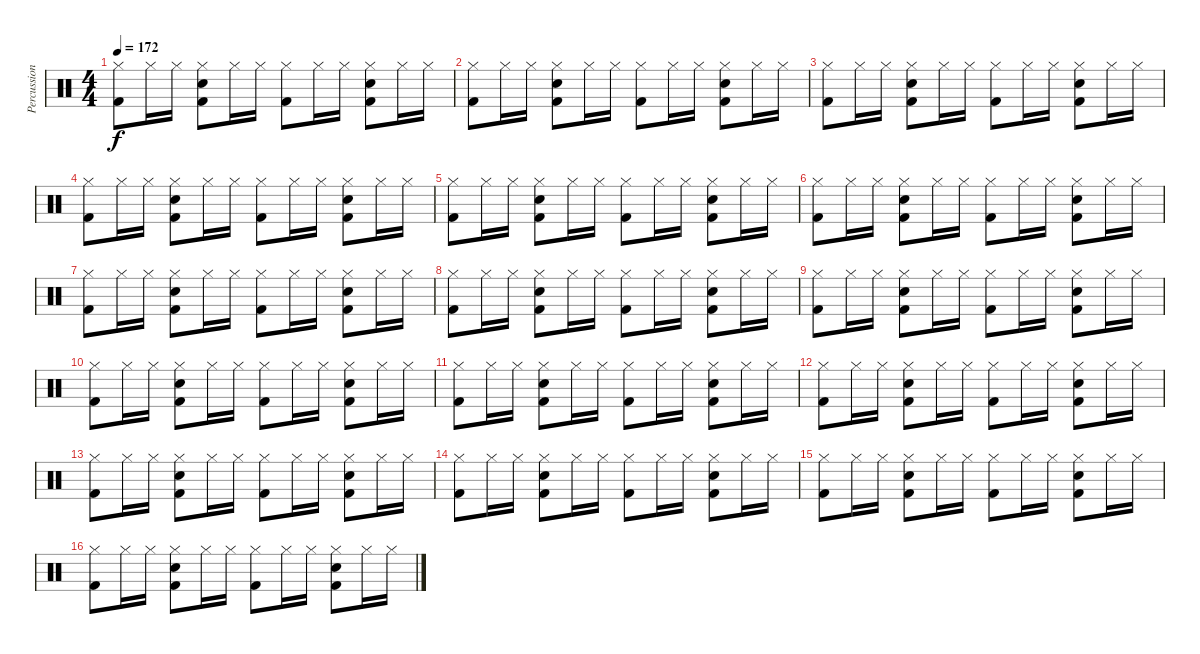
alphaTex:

\track ("Percussion" "Percussion") {instrument percussion}
\staff {score}
\articulation defaults
\ts (4 4)
\tempo 172
\clef neutral
\ks c
("Hi-Hat (closed)" "Kick (hit) 2").8{dy f} "Hi-Hat (closed)".16 "Hi-Hat (closed)".16 ("Hi-Hat (closed)" "Snare (hit) 2" "Kick (hit) 2").8 "Hi-Hat (closed)".16 "Hi-Hat (closed)".16 ("Hi-Hat (closed)" "Kick (hit) 2").8 "Hi-Hat (closed)".16 "Hi-Hat (closed)".16 ("Hi-Hat (closed)" "Snare (hit) 2" "Kick (hit) 2").8 "Hi-Hat (closed)".16 "Hi-Hat (closed)".16 |
("Hi-Hat (closed)" "Kick (hit) 2").8 "Hi-Hat (closed)".16 "Hi-Hat (closed)".16 ("Hi-Hat (closed)" "Snare (hit) 2" "Kick (hit) 2").8 "Hi-Hat (closed)".16 "Hi-Hat (closed)".16 ("Hi-Hat (closed)" "Kick (hit) 2").8 "Hi-Hat (closed)".16 "Hi-Hat (closed)".16 ("Hi-Hat (closed)" "Snare (hit) 2" "Kick (hit) 2").8 "Hi-Hat (closed)".16 "Hi-Hat (closed)".16 |
("Hi-Hat (closed)" "Kick (hit) 2").8 "Hi-Hat (closed)".16 "Hi-Hat (closed)".16 ("Hi-Hat (closed)" "Snare (hit) 2" "Kick (hit) 2").8 "Hi-Hat (closed)".16 "Hi-Hat (closed)".16 ("Hi-Hat (closed)" "Kick (hit) 2").8 "Hi-Hat (closed)".16 "Hi-Hat (closed)".16 ("Hi-Hat (closed)" "Snare (hit) 2" "Kick (hit) 2").8 "Hi-Hat (closed)".16 "Hi-Hat (closed)".16 |
("Hi-Hat (closed)" "Kick (hit) 2").8 "Hi-Hat (closed)".16 "Hi-Hat (closed)".16 ("Hi-Hat (closed)" "Snare (hit) 2" "Kick (hit) 2").8 "Hi-Hat (closed)".16 "Hi-Hat (closed)".16 ("Hi-Hat (closed)" "Kick (hit) 2").8 "Hi-Hat (closed)".16 "Hi-Hat (closed)".16 ("Hi-Hat (closed)" "Snare (hit) 2" "Kick (hit) 2").8 "Hi-Hat (closed)".16 "Hi-Hat (closed)".16 |
("Hi-Hat (closed)" "Kick (hit) 2").8 "Hi-Hat (closed)".16 "Hi-Hat (closed)".16 ("Hi-Hat (closed)" "Snare (hit) 2" "Kick (hit) 2").8 "Hi-Hat (closed)".16 "Hi-Hat (closed)".16 ("Hi-Hat (closed)" "Kick (hit) 2").8 "Hi-Hat (closed)".16 "Hi-Hat (closed)".16 ("Hi-Hat (closed)" "Snare (hit) 2" "Kick (hit) 2").8 "Hi-Hat (closed)".16 "Hi-Hat (closed)".16 |
("Hi-Hat (closed)" "Kick (hit) 2").8 "Hi-Hat (closed)".16 "Hi-Hat (closed)".16 ("Hi-Hat (closed)" "Snare (hit) 2" "Kick (hit) 2").8 "Hi-Hat (closed)".16 "Hi-Hat (closed)".16 ("Hi-Hat (closed)" "Kick (hit) 2").8 "Hi-Hat (closed)".16 "Hi-Hat (closed)".16 ("Hi-Hat (closed)" "Snare (hit) 2" "Kick (hit) 2").8 "Hi-Hat (closed)".16 "Hi-Hat (closed)".16 |
("Hi-Hat (closed)" "Kick (hit) 2").8 "Hi-Hat (closed)".16 "Hi-Hat (closed)".16 ("Hi-Hat (closed)" "Snare (hit) 2" "Kick (hit) 2").8 "Hi-Hat (closed)".16 "Hi-Hat (closed)".16 ("Hi-Hat (closed)" "Kick (hit) 2").8 "Hi-Hat (closed)".16 "Hi-Hat (closed)".16 ("Hi-Hat (closed)" "Snare (hit) 2" "Kick (hit) 2").8 "Hi-Hat (closed)".16 "Hi-Hat (closed)".16 |
("Hi-Hat (closed)" "Kick (hit) 2").8 "Hi-Hat (closed)".16 "Hi-Hat (closed)".16 ("Hi-Hat (closed)" "Snare (hit) 2" "Kick (hit) 2").8 "Hi-Hat (closed)".16 "Hi-Hat (closed)".16 ("Hi-Hat (closed)" "Kick (hit) 2").8 "Hi-Hat (closed)".16 "Hi-Hat (closed)".16 ("Hi-Hat (closed)" "Snare (hit) 2" "Kick (hit) 2").8 "Hi-Hat (closed)".16 "Hi-Hat (closed)".16 |
("Hi-Hat (closed)" "Kick (hit) 2").8 "Hi-Hat (closed)".16 "Hi-Hat (closed)".16 ("Hi-Hat (closed)" "Snare (hit) 2" "Kick (hit) 2").8 "Hi-Hat (closed)".16 "Hi-Hat (closed)".16 ("Hi-Hat (closed)" "Kick (hit) 2").8 "Hi-Hat (closed)".16 "Hi-Hat (closed)".16 ("Hi-Hat (closed)" "Snare (hit) 2" "Kick (hit) 2").8 "Hi-Hat (closed)".16 "Hi-Hat (closed)".16 |
("Hi-Hat (closed)" "Kick (hit) 2").8 "Hi-Hat (closed)".16 "Hi-Hat (closed)".16 ("Hi-Hat (closed)" "Snare (hit) 2" "Kick (hit) 2").8 "Hi-Hat (closed)".16 "Hi-Hat (closed)".16 ("Hi-Hat (closed)" "Kick (hit) 2").8 "Hi-Hat (closed)".16 "Hi-Hat (closed)".16 ("Hi-Hat (closed)" "Snare (hit) 2" "Kick (hit) 2").8 "Hi-Hat (closed)".16 "Hi-Hat (closed)".16 |
("Hi-Hat (closed)" "Kick (hit) 2").8 "Hi-Hat (closed)".16 "Hi-Hat (closed)".16 ("Hi-Hat (closed)" "Snare (hit) 2" "Kick (hit) 2").8 "Hi-Hat (closed)".16 "Hi-Hat (closed)".16 ("Hi-Hat (closed)" "Kick (hit) 2").8 "Hi-Hat (closed)".16 "Hi-Hat (closed)".16 ("Hi-Hat (closed)" "Snare (hit) 2" "Kick (hit) 2").8 "Hi-Hat (closed)".16 "Hi-Hat (closed)".16 |
("Hi-Hat (closed)" "Kick (hit) 2").8 "Hi-Hat (closed)".16 "Hi-Hat (closed)".16 ("Hi-Hat (closed)" "Snare (hit) 2" "Kick (hit) 2").8 "Hi-Hat (closed)".16 "Hi-Hat (closed)".16 ("Hi-Hat (closed)" "Kick (hit) 2").8 "Hi-Hat (closed)".16 "Hi-Hat (closed)".16 ("Hi-Hat (closed)" "Snare (hit) 2" "Kick (hit) 2").8 "Hi-Hat (closed)".16 "Hi-Hat (closed)".16 |
("Hi-Hat (closed)" "Kick (hit) 2").8 "Hi-Hat (closed)".16 "Hi-Hat (closed)".16 ("Hi-Hat (closed)" "Snare (hit) 2" "Kick (hit) 2").8 "Hi-Hat (closed)".16 "Hi-Hat (closed)".16 ("Hi-Hat (closed)" "Kick (hit) 2").8 "Hi-Hat (closed)".16 "Hi-Hat (closed)".16 ("Hi-Hat (closed)" "Snare (hit) 2" "Kick (hit) 2").8 "Hi-Hat (closed)".16 "Hi-Hat (closed)".16 |
("Hi-Hat (closed)" "Kick (hit) 2").8 "Hi-Hat (closed)".16 "Hi-Hat (closed)".16 ("Hi-Hat (closed)" "Snare (hit) 2" "Kick (hit) 2").8 "Hi-Hat (closed)".16 "Hi-Hat (closed)".16 ("Hi-Hat (closed)" "Kick (hit) 2").8 "Hi-Hat (closed)".16 "Hi-Hat (closed)".16 ("Hi-Hat (closed)" "Snare (hit) 2" "Kick (hit) 2").8 "Hi-Hat (closed)".16 "Hi-Hat (closed)".16 |
("Hi-Hat (closed)" "Kick (hit) 2").8 "Hi-Hat (closed)".16 "Hi-Hat (closed)".16 ("Hi-Hat (closed)" "Snare (hit) 2" "Kick (hit) 2").8 "Hi-Hat (closed)".16 "Hi-Hat (closed)".16 ("Hi-Hat (closed)" "Kick (hit) 2").8 "Hi-Hat (closed)".16 "Hi-Hat (closed)".16 ("Hi-Hat (closed)" "Snare (hit) 2" "Kick (hit) 2").8 "Hi-Hat (closed)".16 "Hi-Hat (closed)".16 |
("Hi-Hat (closed)" "Kick (hit) 2").8 "Hi-Hat (closed)".16 "Hi-Hat (closed)".16 ("Hi-Hat (closed)" "Snare (hit) 2" "Kick (hit) 2").8 "Hi-Hat (closed)".16 "Hi-Hat (closed)".16 ("Hi-Hat (closed)" "Kick (hit) 2").8 "Hi-Hat (closed)".16 "Hi-Hat (closed)".16 ("Hi-Hat (closed)" "Snare (hit) 2" "Kick (hit) 2").8 "Hi-Hat (closed)".16 "Hi-Hat (closed)".16
